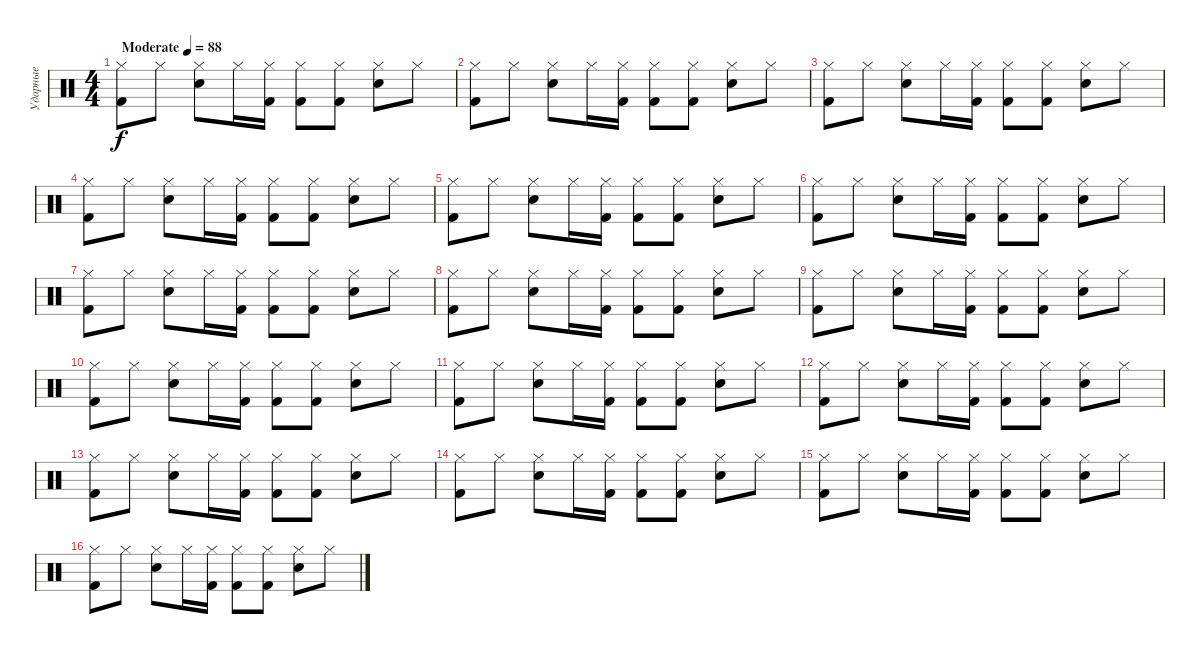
\track ("Ударные" "Ударные") {instrument percussion}
\staff {score}
\articulation defaults
\ts (4 4)
\tempo (88 "Moderate")
\clef neutral
\ks c
("Hi-Hat (closed)" "Kick (hit) 2").8{dy f} "Hi-Hat (closed)".8 ("Hi-Hat (closed)" "Snare (hit) 2").8 "Hi-Hat (closed)".16 ("Hi-Hat (closed)" "Kick (hit) 2").16 ("Hi-Hat (closed)" "Kick (hit) 2").8 ("Hi-Hat (closed)" "Kick (hit) 2").8 ("Hi-Hat (closed)" "Snare (hit) 2").8 "Hi-Hat (closed)".8 |
("Hi-Hat (closed)" "Kick (hit) 2").8 "Hi-Hat (closed)".8 ("Hi-Hat (closed)" "Snare (hit) 2").8 "Hi-Hat (closed)".16 ("Hi-Hat (closed)" "Kick (hit) 2").16 ("Hi-Hat (closed)" "Kick (hit) 2").8 ("Hi-Hat (closed)" "Kick (hit) 2").8 ("Hi-Hat (closed)" "Snare (hit) 2").8 "Hi-Hat (closed)".8 |
("Hi-Hat (closed)" "Kick (hit) 2").8 "Hi-Hat (closed)".8 ("Hi-Hat (closed)" "Snare (hit) 2").8 "Hi-Hat (closed)".16 ("Hi-Hat (closed)" "Kick (hit) 2").16 ("Hi-Hat (closed)" "Kick (hit) 2").8 ("Hi-Hat (closed)" "Kick (hit) 2").8 ("Hi-Hat (closed)" "Snare (hit) 2").8 "Hi-Hat (closed)".8 |
("Hi-Hat (closed)" "Kick (hit) 2").8 "Hi-Hat (closed)".8 ("Hi-Hat (closed)" "Snare (hit) 2").8 "Hi-Hat (closed)".16 ("Hi-Hat (closed)" "Kick (hit) 2").16 ("Hi-Hat (closed)" "Kick (hit) 2").8 ("Hi-Hat (closed)" "Kick (hit) 2").8 ("Hi-Hat (closed)" "Snare (hit) 2").8 "Hi-Hat (closed)".8 |
("Hi-Hat (closed)" "Kick (hit) 2").8 "Hi-Hat (closed)".8 ("Hi-Hat (closed)" "Snare (hit) 2").8 "Hi-Hat (closed)".16 ("Hi-Hat (closed)" "Kick (hit) 2").16 ("Hi-Hat (closed)" "Kick (hit) 2").8 ("Hi-Hat (closed)" "Kick (hit) 2").8 ("Hi-Hat (closed)" "Snare (hit) 2").8 "Hi-Hat (closed)".8 |
("Hi-Hat (closed)" "Kick (hit) 2").8 "Hi-Hat (closed)".8 ("Hi-Hat (closed)" "Snare (hit) 2").8 "Hi-Hat (closed)".16 ("Hi-Hat (closed)" "Kick (hit) 2").16 ("Hi-Hat (closed)" "Kick (hit) 2").8 ("Hi-Hat (closed)" "Kick (hit) 2").8 ("Hi-Hat (closed)" "Snare (hit) 2").8 "Hi-Hat (closed)".8 |
("Hi-Hat (closed)" "Kick (hit) 2").8 "Hi-Hat (closed)".8 ("Hi-Hat (closed)" "Snare (hit) 2").8 "Hi-Hat (closed)".16 ("Hi-Hat (closed)" "Kick (hit) 2").16 ("Hi-Hat (closed)" "Kick (hit) 2").8 ("Hi-Hat (closed)" "Kick (hit) 2").8 ("Hi-Hat (closed)" "Snare (hit) 2").8 "Hi-Hat (closed)".8 |
("Hi-Hat (closed)" "Kick (hit) 2").8 "Hi-Hat (closed)".8 ("Hi-Hat (closed)" "Snare (hit) 2").8 "Hi-Hat (closed)".16 ("Hi-Hat (closed)" "Kick (hit) 2").16 ("Hi-Hat (closed)" "Kick (hit) 2").8 ("Hi-Hat (closed)" "Kick (hit) 2").8 ("Hi-Hat (closed)" "Snare (hit) 2").8 "Hi-Hat (closed)".8 |
("Hi-Hat (closed)" "Kick (hit) 2").8 "Hi-Hat (closed)".8 ("Hi-Hat (closed)" "Snare (hit) 2").8 "Hi-Hat (closed)".16 ("Hi-Hat (closed)" "Kick (hit) 2").16 ("Hi-Hat (closed)" "Kick (hit) 2").8 ("Hi-Hat (closed)" "Kick (hit) 2").8 ("Hi-Hat (closed)" "Snare (hit) 2").8 "Hi-Hat (closed)".8 |
("Hi-Hat (closed)" "Kick (hit) 2").8 "Hi-Hat (closed)".8 ("Hi-Hat (closed)" "Snare (hit) 2").8 "Hi-Hat (closed)".16 ("Hi-Hat (closed)" "Kick (hit) 2").16 ("Hi-Hat (closed)" "Kick (hit) 2").8 ("Hi-Hat (closed)" "Kick (hit) 2").8 ("Hi-Hat (closed)" "Snare (hit) 2").8 "Hi-Hat (closed)".8 |
("Hi-Hat (closed)" "Kick (hit) 2").8 "Hi-Hat (closed)".8 ("Hi-Hat (closed)" "Snare (hit) 2").8 "Hi-Hat (closed)".16 ("Hi-Hat (closed)" "Kick (hit) 2").16 ("Hi-Hat (closed)" "Kick (hit) 2").8 ("Hi-Hat (closed)" "Kick (hit) 2").8 ("Hi-Hat (closed)" "Snare (hit) 2").8 "Hi-Hat (closed)".8 |
("Hi-Hat (closed)" "Kick (hit) 2").8 "Hi-Hat (closed)".8 ("Hi-Hat (closed)" "Snare (hit) 2").8 "Hi-Hat (closed)".16 ("Hi-Hat (closed)" "Kick (hit) 2").16 ("Hi-Hat (closed)" "Kick (hit) 2").8 ("Hi-Hat (closed)" "Kick (hit) 2").8 ("Hi-Hat (closed)" "Snare (hit) 2").8 "Hi-Hat (closed)".8 |
("Hi-Hat (closed)" "Kick (hit) 2").8 "Hi-Hat (closed)".8 ("Hi-Hat (closed)" "Snare (hit) 2").8 "Hi-Hat (closed)".16 ("Hi-Hat (closed)" "Kick (hit) 2").16 ("Hi-Hat (closed)" "Kick (hit) 2").8 ("Hi-Hat (closed)" "Kick (hit) 2").8 ("Hi-Hat (closed)" "Snare (hit) 2").8 "Hi-Hat (closed)".8 |
("Hi-Hat (closed)" "Kick (hit) 2").8 "Hi-Hat (closed)".8 ("Hi-Hat (closed)" "Snare (hit) 2").8 "Hi-Hat (closed)".16 ("Hi-Hat (closed)" "Kick (hit) 2").16 ("Hi-Hat (closed)" "Kick (hit) 2").8 ("Hi-Hat (closed)" "Kick (hit) 2").8 ("Hi-Hat (closed)" "Snare (hit) 2").8 "Hi-Hat (closed)".8 |
("Hi-Hat (closed)" "Kick (hit) 2").8 "Hi-Hat (closed)".8 ("Hi-Hat (closed)" "Snare (hit) 2").8 "Hi-Hat (closed)".16 ("Hi-Hat (closed)" "Kick (hit) 2").16 ("Hi-Hat (closed)" "Kick (hit) 2").8 ("Hi-Hat (closed)" "Kick (hit) 2").8 ("Hi-Hat (closed)" "Snare (hit) 2").8 "Hi-Hat (closed)".8 |
("Hi-Hat (closed)" "Kick (hit) 2").8 "Hi-Hat (closed)".8 ("Hi-Hat (closed)" "Snare (hit) 2").8 "Hi-Hat (closed)".16 ("Hi-Hat (closed)" "Kick (hit) 2").16 ("Hi-Hat (closed)" "Kick (hit) 2").8 ("Hi-Hat (closed)" "Kick (hit) 2").8 ("Hi-Hat (closed)" "Snare (hit) 2").8 "Hi-Hat (closed)".8
